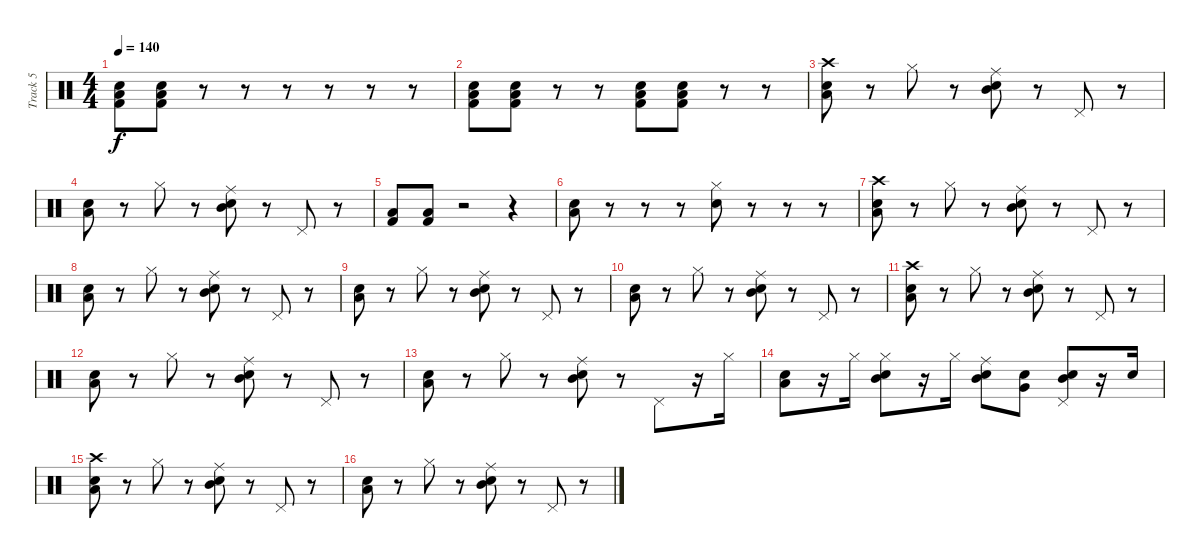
\track ("Track 5" "Track 5") {instrument percussion}
\staff {score}
\articulation defaults
\ts (4 4)
\tempo 140
\clef neutral
\ks c
("Low Floor Tom (hit)" "Kick (hit) 2" "Electric Snare (hit)").8{dy f} ("Low Floor Tom (hit)" "Kick (hit) 2" "Electric Snare (hit)").8 r.8 r.8 r.8 r.8 r.8 r.8 |
("Low Floor Tom (hit)" "Kick (hit) 2" "Electric Snare (hit)").8 ("Low Floor Tom (hit)" "Kick (hit) 2" "Electric Snare (hit)").8 r.8 r.8 ("Low Floor Tom (hit)" "Kick (hit) 2" "Electric Snare (hit)").8 ("Low Floor Tom (hit)" "Kick (hit) 2" "Electric Snare (hit)").8 r.8 r.8 |
("Low Tom (hit)" "Snare (hit) 2" "Crash high (hit)").8 r.8 "Hi-Hat (closed)".8 r.8 ("Mid Tom (hit)" "Electric Snare (hit)" "Ride (middle)").8 r.8 "Pedal Hi-Hat (hit)".8 r.8 |
("Low Tom (hit)" "Snare (hit) 2").8 r.8 "Hi-Hat (closed)".8 r.8 ("Mid Tom (hit)" "Electric Snare (hit)" "Ride (middle)").8 r.8 "Pedal Hi-Hat (hit)".8 r.8 |
("Low Floor Tom (hit)" "Kick (hit) 2").8 ("Low Floor Tom (hit)" "Kick (hit) 2").8 r.2 r.4 |
("Low Tom (hit)" "Snare (hit) 2").8 r.8 r.8 r.8 ("Hi-Hat (closed)" "Electric Snare (hit)").8 r.8 r.8 r.8 |
("Low Tom (hit)" "Snare (hit) 2" "Crash high (hit)").8 r.8 "Hi-Hat (closed)".8 r.8 ("Mid Tom (hit)" "Electric Snare (hit)" "Ride (middle)").8 r.8 "Pedal Hi-Hat (hit)".8 r.8 |
("Low Tom (hit)" "Snare (hit) 2").8 r.8 "Hi-Hat (closed)".8 r.8 ("Mid Tom (hit)" "Electric Snare (hit)" "Ride (middle)").8 r.8 "Pedal Hi-Hat (hit)".8 r.8 |
("Low Tom (hit)" "Snare (hit) 2").8 r.8 "Hi-Hat (closed)".8 r.8 ("Mid Tom (hit)" "Electric Snare (hit)" "Ride (middle)").8 r.8 "Pedal Hi-Hat (hit)".8 r.8 |
("Low Tom (hit)" "Snare (hit) 2").8 r.8 "Hi-Hat (closed)".8 r.8 ("Mid Tom (hit)" "Electric Snare (hit)" "Ride (middle)").8 r.8 "Pedal Hi-Hat (hit)".8 r.8 |
("Low Tom (hit)" "Snare (hit) 2" "Crash high (hit)").8 r.8 "Hi-Hat (closed)".8 r.8 ("Mid Tom (hit)" "Electric Snare (hit)" "Ride (middle)").8 r.8 "Pedal Hi-Hat (hit)".8 r.8 |
("Low Tom (hit)" "Snare (hit) 2").8 r.8 "Hi-Hat (closed)".8 r.8 ("Mid Tom (hit)" "Electric Snare (hit)" "Ride (middle)").8 r.8 "Pedal Hi-Hat (hit)".8 r.8 |
("Low Tom (hit)" "Snare (hit) 2").8 r.8 "Hi-Hat (closed)".8 r.8 ("Mid Tom (hit)" "Electric Snare (hit)" "Ride (middle)").8 r.8 "Pedal Hi-Hat (hit)".8 r.16 "Hi-Hat (closed)".16 |
("Low Tom (hit)" "Snare (hit) 2").8 r.16 "Hi-Hat (closed)".16 ("Hi-Hat (closed)" "Mid Tom (hit)" "Electric Snare (hit)").8 r.16 "Hi-Hat (closed)".16 ("Mid Tom (hit)" "Electric Snare (hit)" "Ride (middle)").8 ("Very Low Tom (hit)" "Snare (hit) 2").8 ("Pedal Hi-Hat (hit)" "Electric Snare (hit)" "Mid Tom (hit)").8 r.16 "Snare (hit) 2".16 |
("Low Tom (hit)" "Snare (hit) 2" "Crash high (hit)").8 r.8 "Hi-Hat (closed)".8 r.8 ("Mid Tom (hit)" "Electric Snare (hit)" "Ride (middle)").8 r.8 "Pedal Hi-Hat (hit)".8 r.8 |
("Low Tom (hit)" "Snare (hit) 2").8 r.8 "Hi-Hat (closed)".8 r.8 ("Mid Tom (hit)" "Electric Snare (hit)" "Ride (middle)").8 r.8 "Pedal Hi-Hat (hit)".8 r.8
